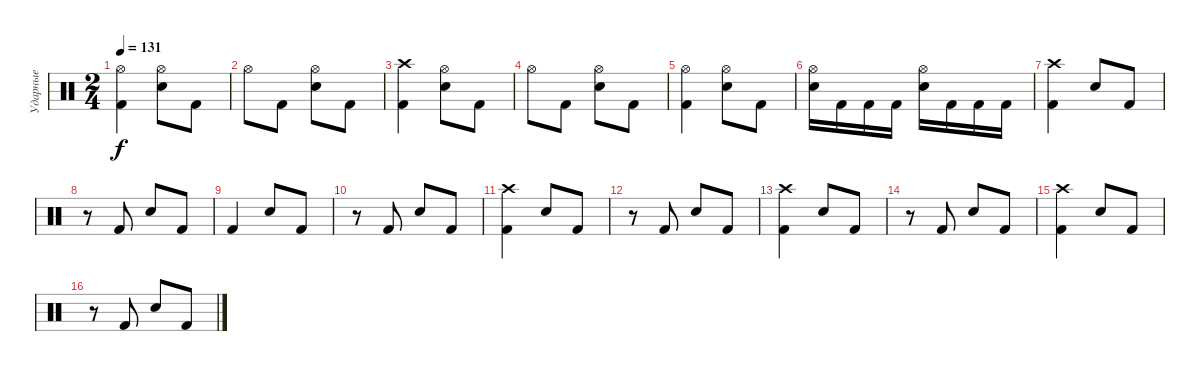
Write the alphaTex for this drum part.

\track ("Ударные" "Ударные") {instrument percussion}
\staff {score}
\articulation defaults
\ts (2 4)
\tempo 131
\clef neutral
\ks c
("Hi-Hat (open)" "Kick (hit) 2").4{dy f} ("Hi-Hat (open)" "Electric Snare (hit)").8 "Kick (hit) 2".8 |
"Hi-Hat (open)".8 "Kick (hit) 2".8 ("Hi-Hat (open)" "Electric Snare (hit)").8 "Kick (hit) 2".8 |
("Crash high (hit)" "Kick (hit) 2").4 ("Hi-Hat (open)" "Electric Snare (hit)").8 "Kick (hit) 2".8 |
"Hi-Hat (open)".8 "Kick (hit) 2".8 ("Hi-Hat (open)" "Electric Snare (hit)").8 "Kick (hit) 2".8 |
("Hi-Hat (open)" "Kick (hit) 2").4 ("Hi-Hat (open)" "Electric Snare (hit)").8 "Kick (hit) 2".8 |
("Hi-Hat (open)" "Electric Snare (hit)").16 "Kick (hit) 2".16 "Kick (hit) 2".16 "Kick (hit) 2".16 ("Hi-Hat (open)" "Electric Snare (hit)").16 "Kick (hit) 2".16 "Kick (hit) 2".16 "Kick (hit) 2".16 |
("Crash high (hit)" "Kick (hit) 2").4 "Electric Snare (hit)".8 "Kick (hit) 2".8 |
r.8 "Kick (hit) 2".8 "Electric Snare (hit)".8 "Kick (hit) 2".8 |
"Kick (hit) 2".4 "Electric Snare (hit)".8 "Kick (hit) 2".8 |
r.8 "Kick (hit) 2".8 "Electric Snare (hit)".8 "Kick (hit) 2".8 |
("Crash high (hit)" "Kick (hit) 2").4 "Electric Snare (hit)".8 "Kick (hit) 2".8 |
r.8 "Kick (hit) 2".8 "Electric Snare (hit)".8 "Kick (hit) 2".8 |
("Crash high (hit)" "Kick (hit) 2").4 "Electric Snare (hit)".8 "Kick (hit) 2".8 |
r.8 "Kick (hit) 2".8 "Electric Snare (hit)".8 "Kick (hit) 2".8 |
("Crash high (hit)" "Kick (hit) 2").4 "Electric Snare (hit)".8 "Kick (hit) 2".8 |
r.8 "Kick (hit) 2".8 "Electric Snare (hit)".8 "Kick (hit) 2".8
